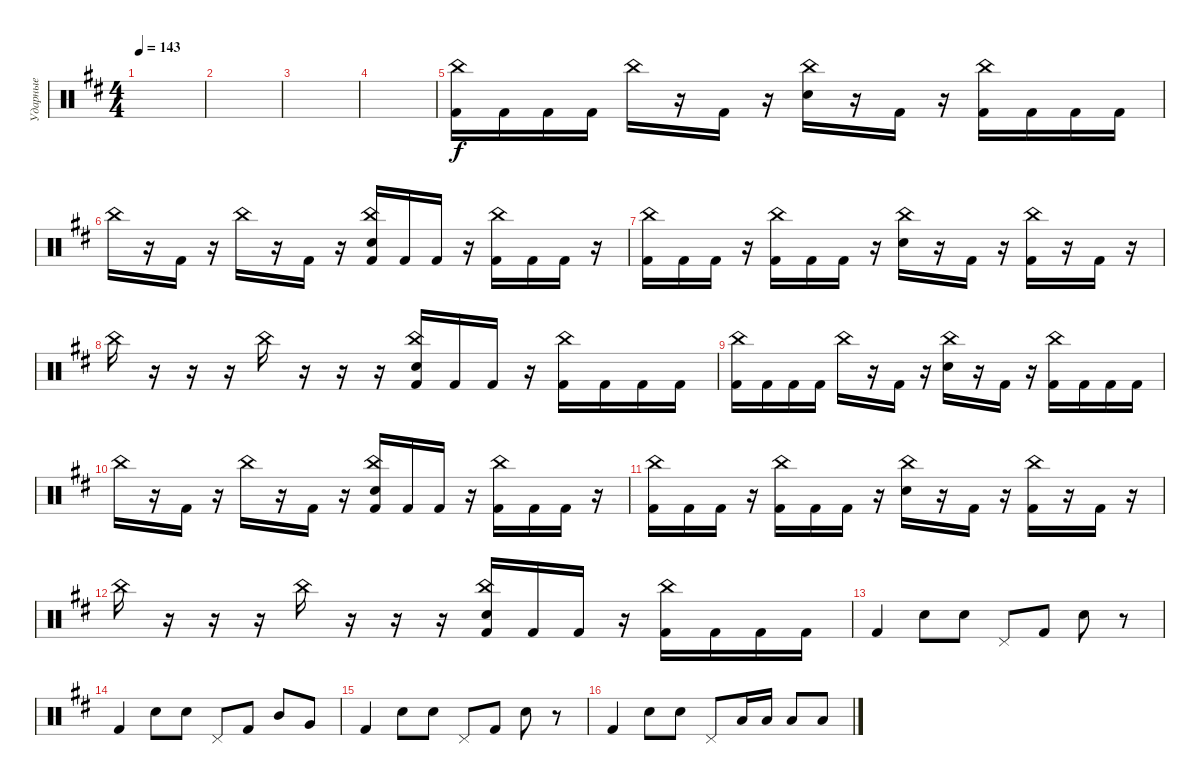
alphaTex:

\track ("Ударные" "Ударные") {instrument percussion}
\staff {score}
\articulation defaults
\ts (4 4)
\tempo 143
\clef neutral
\ks bminor
|
|
|
|
("Kick (hit) 2" "China (hit)").16 "Kick (hit) 2".16 "Kick (hit) 2".16 "Kick (hit) 2".16 "China (hit)".16 r.16 "Kick (hit) 2".16 r.16 ("China (hit)" "Electric Snare (hit)").16 r.16 "Kick (hit) 2".16 r.16 ("Kick (hit) 2" "China (hit)").16 "Kick (hit) 2".16 "Kick (hit) 2".16 "Kick (hit) 2".16 |
"China (hit)".16 r.16 "Kick (hit) 2".16 r.16 "China (hit)".16 r.16 "Kick (hit) 2".16 r.16 ("Kick (hit) 2" "China (hit)" "Electric Snare (hit)").16 "Kick (hit) 2".16 "Kick (hit) 2".16 r.16 ("Kick (hit) 2" "China (hit)").16 "Kick (hit) 2".16 "Kick (hit) 2".16 r.16 |
("Kick (hit) 2" "China (hit)").16 "Kick (hit) 2".16 "Kick (hit) 2".16 r.16 ("Kick (hit) 2" "China (hit)").16 "Kick (hit) 2".16 "Kick (hit) 2".16 r.16 ("China (hit)" "Electric Snare (hit)").16 r.16 "Kick (hit) 2".16 r.16 ("Kick (hit) 2" "China (hit)").16 r.16 "Kick (hit) 2".16 r.16 |
"China (hit)".16 r.16 r.16 r.16 "China (hit)".16 r.16 r.16 r.16 ("China (hit)" "Electric Snare (hit)" "Kick (hit) 2").16 "Kick (hit) 2".16 "Kick (hit) 2".16 r.16 ("China (hit)" "Kick (hit) 2").16 "Kick (hit) 2".16 "Kick (hit) 2".16 "Kick (hit) 2".16 |
("Kick (hit) 2" "China (hit)").16 "Kick (hit) 2".16 "Kick (hit) 2".16 "Kick (hit) 2".16 "China (hit)".16 r.16 "Kick (hit) 2".16 r.16 ("China (hit)" "Electric Snare (hit)").16 r.16 "Kick (hit) 2".16 r.16 ("Kick (hit) 2" "China (hit)").16 "Kick (hit) 2".16 "Kick (hit) 2".16 "Kick (hit) 2".16 |
"China (hit)".16 r.16 "Kick (hit) 2".16 r.16 "China (hit)".16 r.16 "Kick (hit) 2".16 r.16 ("Kick (hit) 2" "China (hit)" "Electric Snare (hit)").16 "Kick (hit) 2".16 "Kick (hit) 2".16 r.16 ("Kick (hit) 2" "China (hit)").16 "Kick (hit) 2".16 "Kick (hit) 2".16 r.16 |
("Kick (hit) 2" "China (hit)").16 "Kick (hit) 2".16 "Kick (hit) 2".16 r.16 ("Kick (hit) 2" "China (hit)").16 "Kick (hit) 2".16 "Kick (hit) 2".16 r.16 ("China (hit)" "Electric Snare (hit)").16 r.16 "Kick (hit) 2".16 r.16 ("Kick (hit) 2" "China (hit)").16 r.16 "Kick (hit) 2".16 r.16 |
"China (hit)".16 r.16 r.16 r.16 "China (hit)".16 r.16 r.16 r.16 ("China (hit)" "Electric Snare (hit)" "Kick (hit) 2").16 "Kick (hit) 2".16 "Kick (hit) 2".16 r.16 ("China (hit)" "Kick (hit) 2").16 "Kick (hit) 2".16 "Kick (hit) 2".16 "Kick (hit) 2".16 |
"Kick (hit) 2".4 "Electric Snare (hit)".8 "Electric Snare (hit)".8 "Pedal Hi-Hat (hit)".8 "Kick (hit) 2".8 "Electric Snare (hit)".8 r.8 |
"Kick (hit) 2".4 "Electric Snare (hit)".8 "Electric Snare (hit)".8 "Pedal Hi-Hat (hit)".8 "Kick (hit) 2".8 "Mid Tom (hit)".8 "Very Low Tom (hit)".8 |
"Kick (hit) 2".4 "Electric Snare (hit)".8 "Electric Snare (hit)".8 "Pedal Hi-Hat (hit)".8 "Kick (hit) 2".8 "Electric Snare (hit)".8 r.8 |
"Kick (hit) 2".4 "Electric Snare (hit)".8 "Electric Snare (hit)".8 "Pedal Hi-Hat (hit)".8 "Low Floor Tom (hit)".16 "Low Floor Tom (hit)".16 "Low Floor Tom (hit)".8 "Low Floor Tom (hit)".8
